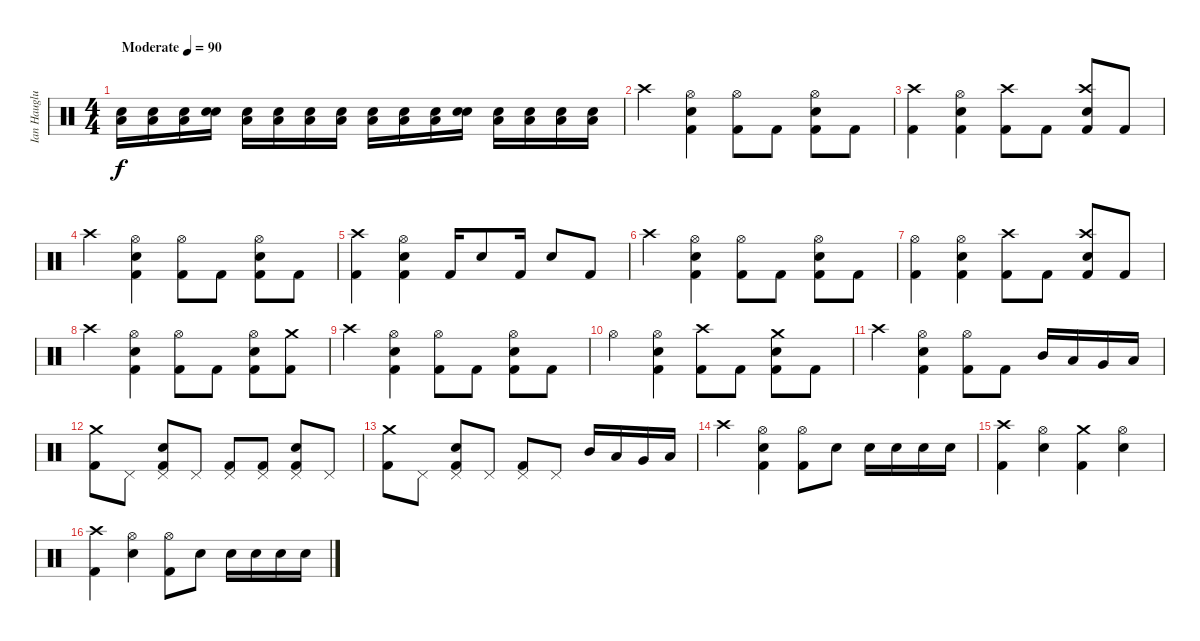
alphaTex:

\track ("Ian Hauglund" "Ian Hauglu") {instrument percussion}
\staff {score}
\articulation defaults
\ts (4 4)
\tempo (90 "Moderate")
\clef neutral
\ks c
("Low Floor Tom (hit)" "Electric Snare (hit)").16{dy f} ("Low Floor Tom (hit)" "Electric Snare (hit)").16 ("Low Floor Tom (hit)" "Electric Snare (hit)").16 ("Snare (hit)" "Electric Snare (hit)").16 ("Low Floor Tom (hit)" "Electric Snare (hit)").16 ("Low Floor Tom (hit)" "Electric Snare (hit)").16 ("Low Floor Tom (hit)" "Electric Snare (hit)").16 ("Low Floor Tom (hit)" "Electric Snare (hit)").16 ("Low Floor Tom (hit)" "Electric Snare (hit)").16 ("Low Floor Tom (hit)" "Electric Snare (hit)").16 ("Low Floor Tom (hit)" "Electric Snare (hit)").16 ("Snare (hit)" "Electric Snare (hit)").16 ("Low Floor Tom (hit)" "Electric Snare (hit)").16 ("Low Floor Tom (hit)" "Electric Snare (hit)").16 ("Low Floor Tom (hit)" "Electric Snare (hit)").16 ("Low Floor Tom (hit)" "Electric Snare (hit)").16 |
"Crash high (hit)".4 ("Kick (hit) 2" "Electric Snare (hit)" "Hi-Hat (open)").4 ("Kick (hit) 2" "Hi-Hat (open)").8 "Kick (hit) 2".8 ("Kick (hit) 2" "Hi-Hat (open)" "Electric Snare (hit)").8 "Kick (hit) 2".8 |
("Kick (hit) 2" "Crash high (hit)").4 ("Kick (hit) 2" "Electric Snare (hit)" "Hi-Hat (open)").4 ("Kick (hit) 2" "Crash high (hit)").8 "Kick (hit) 2".8 ("Kick (hit) 2" "Electric Snare (hit)" "Crash high (hit)").8 "Kick (hit) 2".8 |
"Crash high (hit)".4 ("Kick (hit) 2" "Electric Snare (hit)" "Hi-Hat (open)").4 ("Kick (hit) 2" "Hi-Hat (open)").8 "Kick (hit) 2".8 ("Kick (hit) 2" "Hi-Hat (open)" "Electric Snare (hit)").8 "Kick (hit) 2".8 |
("Kick (hit) 2" "Crash high (hit)").4 ("Kick (hit) 2" "Electric Snare (hit)" "Hi-Hat (open)").4 "Kick (hit) 2".16 "Electric Snare (hit)".8 "Kick (hit) 2".16 "Electric Snare (hit)".8 "Kick (hit) 2".8 |
"Crash high (hit)".4 ("Kick (hit) 2" "Electric Snare (hit)" "Hi-Hat (open)").4 ("Kick (hit) 2" "Hi-Hat (open)").8 "Kick (hit) 2".8 ("Kick (hit) 2" "Hi-Hat (open)" "Electric Snare (hit)").8 "Kick (hit) 2".8 |
("Kick (hit) 2" "Hi-Hat (open)").4 ("Kick (hit) 2" "Electric Snare (hit)" "Hi-Hat (open)").4 ("Kick (hit) 2" "Crash high (hit)").8 "Kick (hit) 2".8 ("Kick (hit) 2" "Electric Snare (hit)" "Crash high (hit)").8 "Kick (hit) 2".8 |
"Crash high (hit)".4 ("Kick (hit) 2" "Electric Snare (hit)" "Hi-Hat (open)").4 ("Kick (hit) 2" "Hi-Hat (open)").8 "Kick (hit) 2".8 ("Kick (hit) 2" "Hi-Hat (open)" "Electric Snare (hit)").8 ("Kick (hit) 2" "Crash medium (hit)").8 |
"Crash high (hit)".4 ("Kick (hit) 2" "Electric Snare (hit)" "Hi-Hat (open)").4 ("Kick (hit) 2" "Hi-Hat (open)").8 "Kick (hit) 2".8 ("Kick (hit) 2" "Hi-Hat (open)" "Electric Snare (hit)").8 "Kick (hit) 2".8 |
"Hi-Hat (open)".4 ("Kick (hit) 2" "Electric Snare (hit)" "Hi-Hat (open)").4 ("Kick (hit) 2" "Crash high (hit)").8 "Kick (hit) 2".8 ("Kick (hit) 2" "Crash medium (hit)" "Electric Snare (hit)").8 "Kick (hit) 2".8 |
"Crash high (hit)".4 ("Kick (hit) 2" "Electric Snare (hit)" "Hi-Hat (open)").4 ("Kick (hit) 2" "Hi-Hat (open)").8 "Kick (hit) 2".8 "Mid Tom (hit)".16 "Low Tom (hit)".16 "Very Low Tom (hit)".16 "Low Floor Tom (hit)".16 |
("Kick (hit) 2" "Crash medium (hit)").8 "Pedal Hi-Hat (hit)".8 ("Kick (hit) 2" "Electric Snare (hit)" "Pedal Hi-Hat (hit)").8 "Pedal Hi-Hat (hit)".8 ("Kick (hit) 2" "Pedal Hi-Hat (hit)").8 ("Kick (hit) 2" "Pedal Hi-Hat (hit)").8 ("Kick (hit) 2" "Electric Snare (hit)" "Pedal Hi-Hat (hit)").8 "Pedal Hi-Hat (hit)".8 |
("Kick (hit) 2" "Crash medium (hit)").8 "Pedal Hi-Hat (hit)".8 ("Kick (hit) 2" "Electric Snare (hit)" "Pedal Hi-Hat (hit)").8 "Pedal Hi-Hat (hit)".8 ("Kick (hit) 2" "Pedal Hi-Hat (hit)").8 "Pedal Hi-Hat (hit)".8 "Mid Tom (hit)".16 "Low Tom (hit)".16 "Very Low Tom (hit)".16 "Low Floor Tom (hit)".16 |
"Crash high (hit)".4 ("Kick (hit) 2" "Electric Snare (hit)" "Hi-Hat (open)").4 ("Kick (hit) 2" "Hi-Hat (open)").8 "Electric Snare (hit)".8 "Electric Snare (hit)".16 "Electric Snare (hit)".16 "Electric Snare (hit)".16 "Electric Snare (hit)".16 |
("Kick (hit) 2" "Crash high (hit)").4 ("Electric Snare (hit)" "Hi-Hat (open)").4 ("Kick (hit) 2" "Crash medium (hit)").4 ("Electric Snare (hit)" "Hi-Hat (open)").4 |
("Kick (hit) 2" "Crash high (hit)").4 ("Electric Snare (hit)" "Hi-Hat (open)").4 ("Kick (hit) 2" "Hi-Hat (open)").8 "Electric Snare (hit)".8 "Electric Snare (hit)".16 "Electric Snare (hit)".16 "Electric Snare (hit)".16 "Electric Snare (hit)".16
